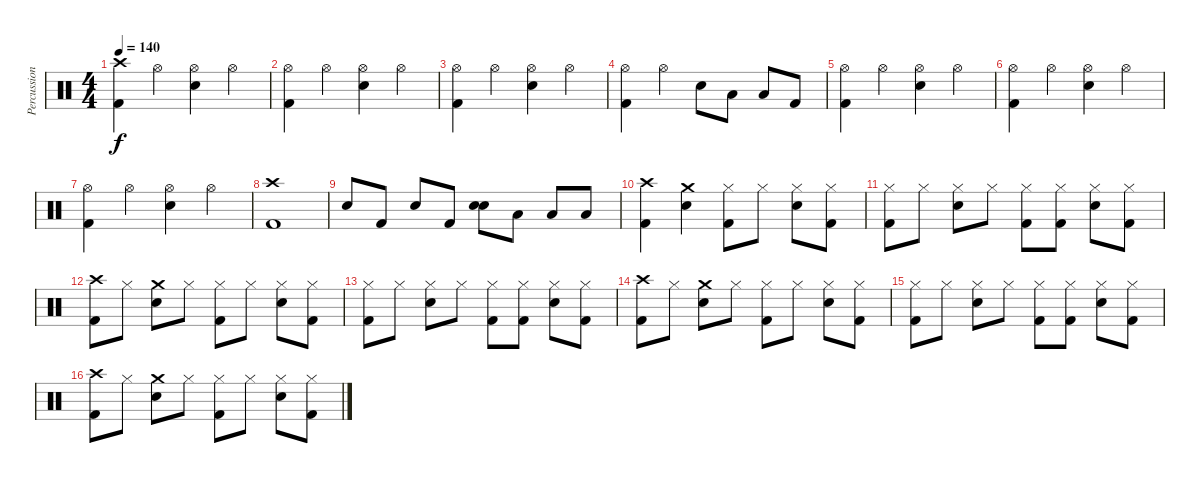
\track ("Percussion" "Percussion") {instrument percussion}
\staff {score}
\articulation defaults
\ts (4 4)
\tempo 140
\clef neutral
\ks c
("Crash high (hit)" "Kick (hit) 2").4{dy f} "Hi-Hat (open)".4 ("Hi-Hat (open)" "Snare (hit) 2").4 "Hi-Hat (open)".4 |
("Hi-Hat (open)" "Kick (hit) 2").4 "Hi-Hat (open)".4 ("Hi-Hat (open)" "Snare (hit) 2").4 "Hi-Hat (open)".4 |
("Hi-Hat (open)" "Kick (hit) 2").4 "Hi-Hat (open)".4 ("Hi-Hat (open)" "Snare (hit) 2").4 "Hi-Hat (open)".4 |
("Hi-Hat (open)" "Kick (hit) 2").4 "Hi-Hat (open)".4 "Snare (hit) 2".8 "Low Tom (hit)".8 "Low Tom (hit)".8 "Kick (hit) 2".8 |
("Hi-Hat (open)" "Kick (hit) 2").4 "Hi-Hat (open)".4 ("Hi-Hat (open)" "Snare (hit) 2").4 "Hi-Hat (open)".4 |
("Hi-Hat (open)" "Kick (hit) 2").4 "Hi-Hat (open)".4 ("Hi-Hat (open)" "Snare (hit) 2").4 "Hi-Hat (open)".4 |
("Hi-Hat (open)" "Kick (hit) 2").4 "Hi-Hat (open)".4 ("Hi-Hat (open)" "Snare (hit) 2").4 "Hi-Hat (open)".4 |
("Crash high (hit)" "Kick (hit) 2").1 |
"Snare (hit) 2".8 "Kick (hit) 2".8 "Snare (hit) 2".8 "Kick (hit) 2".8 ("Snare (hit) 2" "Snare (hit) 2").8 "Low Tom (hit)".8 "Low Tom (hit)".8 "Low Tom (hit)".8 |
("Crash high (hit)" "Kick (hit) 2").4 ("Crash medium (hit)" "Snare (hit) 2").4 ("Hi-Hat (closed)" "Kick (hit) 2").8 "Hi-Hat (closed)".8 ("Hi-Hat (closed)" "Snare (hit) 2").8 ("Hi-Hat (closed)" "Kick (hit) 2").8 |
("Hi-Hat (closed)" "Kick (hit) 2").8 "Hi-Hat (closed)".8 ("Hi-Hat (closed)" "Snare (hit) 2").8 "Hi-Hat (closed)".8 ("Hi-Hat (closed)" "Kick (hit) 2").8 ("Hi-Hat (closed)" "Kick (hit) 2").8 ("Hi-Hat (closed)" "Snare (hit) 2").8 ("Hi-Hat (closed)" "Kick (hit) 2").8 |
("Crash high (hit)" "Kick (hit) 2").8 "Hi-Hat (closed)".8 ("Crash medium (hit)" "Snare (hit) 2").8 "Hi-Hat (closed)".8 ("Hi-Hat (closed)" "Kick (hit) 2").8 "Hi-Hat (closed)".8 ("Hi-Hat (closed)" "Snare (hit) 2").8 ("Hi-Hat (closed)" "Kick (hit) 2").8 |
("Hi-Hat (closed)" "Kick (hit) 2").8 "Hi-Hat (closed)".8 ("Hi-Hat (closed)" "Snare (hit) 2").8 "Hi-Hat (closed)".8 ("Hi-Hat (closed)" "Kick (hit) 2").8 ("Hi-Hat (closed)" "Kick (hit) 2").8 ("Hi-Hat (closed)" "Snare (hit) 2").8 ("Hi-Hat (closed)" "Kick (hit) 2").8 |
("Crash high (hit)" "Kick (hit) 2").8 "Hi-Hat (closed)".8 ("Crash medium (hit)" "Snare (hit) 2").8 "Hi-Hat (closed)".8 ("Hi-Hat (closed)" "Kick (hit) 2").8 "Hi-Hat (closed)".8 ("Hi-Hat (closed)" "Snare (hit) 2").8 ("Hi-Hat (closed)" "Kick (hit) 2").8 |
("Hi-Hat (closed)" "Kick (hit) 2").8 "Hi-Hat (closed)".8 ("Hi-Hat (closed)" "Snare (hit) 2").8 "Hi-Hat (closed)".8 ("Hi-Hat (closed)" "Kick (hit) 2").8 ("Hi-Hat (closed)" "Kick (hit) 2").8 ("Hi-Hat (closed)" "Snare (hit) 2").8 ("Hi-Hat (closed)" "Kick (hit) 2").8 |
("Crash high (hit)" "Kick (hit) 2").8 "Hi-Hat (closed)".8 ("Crash medium (hit)" "Snare (hit) 2").8 "Hi-Hat (closed)".8 ("Hi-Hat (closed)" "Kick (hit) 2").8 "Hi-Hat (closed)".8 ("Hi-Hat (closed)" "Snare (hit) 2").8 ("Hi-Hat (closed)" "Kick (hit) 2").8
